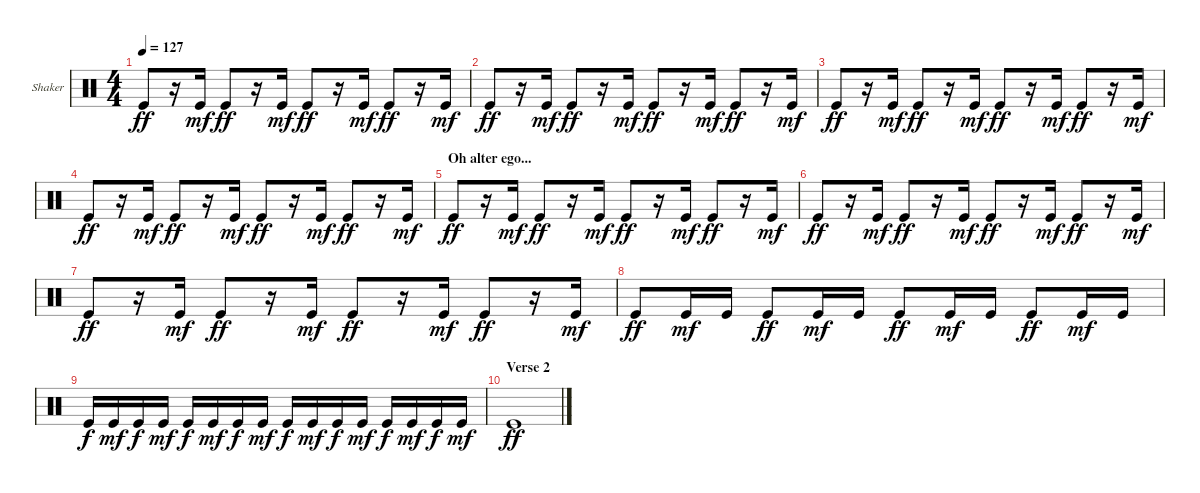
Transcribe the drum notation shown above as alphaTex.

\bracketExtendMode groupsimilarinstruments
\firstSystemTrackNameOrientation horizontal
\otherSystemsTrackNameOrientation horizontal
\track ("Shaker" "Shaker") {instrument percussion}
\staff {score}
\articulation defaults
\ts (4 4)
\tempo 127
\clef neutral
\ks c "Kick (hit)".8{dy ff}
r.16 "Kick (hit)".16{dy mf} "Kick (hit)".8{dy ff} r.16 "Kick (hit)".16{dy mf} "Kick (hit)".8{dy ff} r.16 "Kick (hit)".16{dy mf} "Kick (hit)".8{dy ff} r.16 "Kick (hit)".16{dy mf} |
"Kick (hit)".8{dy ff} r.16 "Kick (hit)".16{dy mf} "Kick (hit)".8{dy ff} r.16 "Kick (hit)".16{dy mf} "Kick (hit)".8{dy ff} r.16 "Kick (hit)".16{dy mf} "Kick (hit)".8{dy ff} r.16 "Kick (hit)".16{dy mf} |
"Kick (hit)".8{dy ff} r.16 "Kick (hit)".16{dy mf} "Kick (hit)".8{dy ff} r.16 "Kick (hit)".16{dy mf} "Kick (hit)".8{dy ff} r.16 "Kick (hit)".16{dy mf} "Kick (hit)".8{dy ff} r.16 "Kick (hit)".16{dy mf} |
"Kick (hit)".8{dy ff} r.16 "Kick (hit)".16{dy mf} "Kick (hit)".8{dy ff} r.16 "Kick (hit)".16{dy mf} "Kick (hit)".8{dy ff} r.16 "Kick (hit)".16{dy mf} "Kick (hit)".8{dy ff} r.16 "Kick (hit)".16{dy mf} |
\section ("" "Oh alter ego...")
"Kick (hit)".8{dy ff} r.16 "Kick (hit)".16{dy mf} "Kick (hit)".8{dy ff} r.16 "Kick (hit)".16{dy mf} "Kick (hit)".8{dy ff} r.16 "Kick (hit)".16{dy mf} "Kick (hit)".8{dy ff} r.16 "Kick (hit)".16{dy mf} |
"Kick (hit)".8{dy ff} r.16 "Kick (hit)".16{dy mf} "Kick (hit)".8{dy ff} r.16 "Kick (hit)".16{dy mf} "Kick (hit)".8{dy ff} r.16 "Kick (hit)".16{dy mf} "Kick (hit)".8{dy ff} r.16 "Kick (hit)".16{dy mf} |
"Kick (hit)".8{dy ff} r.16 "Kick (hit)".16{dy mf} "Kick (hit)".8{dy ff} r.16 "Kick (hit)".16{dy mf} "Kick (hit)".8{dy ff} r.16 "Kick (hit)".16{dy mf} "Kick (hit)".8{dy ff} r.16 "Kick (hit)".16{dy mf} |
"Kick (hit)".8{dy ff} "Kick (hit)".16{dy mf} "Kick (hit)".16 "Kick (hit)".8{dy ff} "Kick (hit)".16{dy mf} "Kick (hit)".16 "Kick (hit)".8{dy ff} "Kick (hit)".16{dy mf} "Kick (hit)".16 "Kick (hit)".8{dy ff} "Kick (hit)".16{dy mf} "Kick (hit)".16 |
"Kick (hit)".16{dy f} "Kick (hit)".16{dy mf} "Kick (hit)".16{dy f} "Kick (hit)".16{dy mf} "Kick (hit)".16{dy f} "Kick (hit)".16{dy mf} "Kick (hit)".16{dy f} "Kick (hit)".16{dy mf} "Kick (hit)".16{dy f} "Kick (hit)".16{dy mf} "Kick (hit)".16{dy f} "Kick (hit)".16{dy mf} "Kick (hit)".16{dy f} "Kick (hit)".16{dy mf} "Kick (hit)".16{dy f} "Kick (hit)".16{dy mf} |
\section ("" "Verse 2")
"Kick (hit)".1{dy ff}
